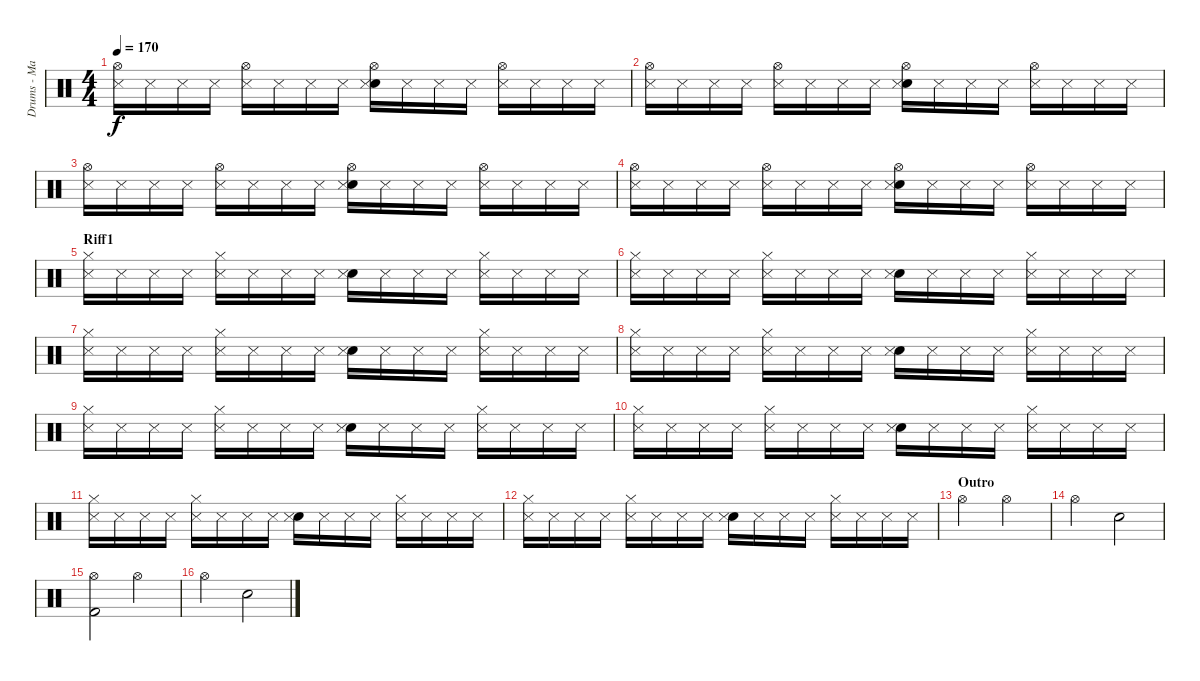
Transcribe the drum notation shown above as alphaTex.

\track ("Drums - Mattias Grahn" "Drums - Ma") {instrument percussion}
\staff {score}
\articulation defaults
\ts (4 4)
\tempo 170
\clef neutral
\ks c
("Hi-Hat (open)" "Snare (side stick) 3").16{dy f} "Snare (side stick) 3".16 "Snare (side stick) 3".16 "Snare (side stick) 3".16 ("Hi-Hat (open)" "Snare (side stick) 3").16 "Snare (side stick) 3".16 "Snare (side stick) 3".16 "Snare (side stick) 3".16 ("Electric Snare (hit)" "Hi-Hat (open)" "Snare (side stick) 3").16 "Snare (side stick) 3".16 "Snare (side stick) 3".16 "Snare (side stick) 3".16 ("Hi-Hat (open)" "Snare (side stick) 3").16 "Snare (side stick) 3".16 "Snare (side stick) 3".16 "Snare (side stick) 3".16 |
("Hi-Hat (open)" "Snare (side stick) 3").16 "Snare (side stick) 3".16 "Snare (side stick) 3".16 "Snare (side stick) 3".16 ("Hi-Hat (open)" "Snare (side stick) 3").16 "Snare (side stick) 3".16 "Snare (side stick) 3".16 "Snare (side stick) 3".16 ("Electric Snare (hit)" "Hi-Hat (open)" "Snare (side stick) 3").16 "Snare (side stick) 3".16 "Snare (side stick) 3".16 "Snare (side stick) 3".16 ("Hi-Hat (open)" "Snare (side stick) 3").16 "Snare (side stick) 3".16 "Snare (side stick) 3".16 "Snare (side stick) 3".16 |
("Hi-Hat (open)" "Snare (side stick) 3").16 "Snare (side stick) 3".16 "Snare (side stick) 3".16 "Snare (side stick) 3".16 ("Hi-Hat (open)" "Snare (side stick) 3").16 "Snare (side stick) 3".16 "Snare (side stick) 3".16 "Snare (side stick) 3".16 ("Electric Snare (hit)" "Hi-Hat (open)" "Snare (side stick) 3").16 "Snare (side stick) 3".16 "Snare (side stick) 3".16 "Snare (side stick) 3".16 ("Hi-Hat (open)" "Snare (side stick) 3").16 "Snare (side stick) 3".16 "Snare (side stick) 3".16 "Snare (side stick) 3".16 |
("Hi-Hat (open)" "Snare (side stick) 3").16 "Snare (side stick) 3".16 "Snare (side stick) 3".16 "Snare (side stick) 3".16 ("Hi-Hat (open)" "Snare (side stick) 3").16 "Snare (side stick) 3".16 "Snare (side stick) 3".16 "Snare (side stick) 3".16 ("Electric Snare (hit)" "Hi-Hat (open)" "Snare (side stick) 3").16 "Snare (side stick) 3".16 "Snare (side stick) 3".16 "Snare (side stick) 3".16 ("Hi-Hat (open)" "Snare (side stick) 3").16 "Snare (side stick) 3".16 "Snare (side stick) 3".16 "Snare (side stick) 3".16 |
\section ("" "Riff1")
("Hi-Hat (closed)" "Snare (side stick) 3").16 "Snare (side stick) 3".16 "Snare (side stick) 3".16 "Snare (side stick) 3".16 ("Hi-Hat (closed)" "Snare (side stick) 3").16 "Snare (side stick) 3".16 "Snare (side stick) 3".16 "Snare (side stick) 3".16 ("Electric Snare (hit)" "Snare (side stick) 3").16 "Snare (side stick) 3".16 "Snare (side stick) 3".16 "Snare (side stick) 3".16 ("Hi-Hat (closed)" "Snare (side stick) 3").16 "Snare (side stick) 3".16 "Snare (side stick) 3".16 "Snare (side stick) 3".16 |
("Hi-Hat (closed)" "Snare (side stick) 3").16 "Snare (side stick) 3".16 "Snare (side stick) 3".16 "Snare (side stick) 3".16 ("Hi-Hat (closed)" "Snare (side stick) 3").16 "Snare (side stick) 3".16 "Snare (side stick) 3".16 "Snare (side stick) 3".16 ("Electric Snare (hit)" "Snare (side stick) 3").16 "Snare (side stick) 3".16 "Snare (side stick) 3".16 "Snare (side stick) 3".16 ("Hi-Hat (closed)" "Snare (side stick) 3").16 "Snare (side stick) 3".16 "Snare (side stick) 3".16 "Snare (side stick) 3".16 |
("Hi-Hat (closed)" "Snare (side stick) 3").16 "Snare (side stick) 3".16 "Snare (side stick) 3".16 "Snare (side stick) 3".16 ("Hi-Hat (closed)" "Snare (side stick) 3").16 "Snare (side stick) 3".16 "Snare (side stick) 3".16 "Snare (side stick) 3".16 ("Electric Snare (hit)" "Snare (side stick) 3").16 "Snare (side stick) 3".16 "Snare (side stick) 3".16 "Snare (side stick) 3".16 ("Hi-Hat (closed)" "Snare (side stick) 3").16 "Snare (side stick) 3".16 "Snare (side stick) 3".16 "Snare (side stick) 3".16 |
("Hi-Hat (closed)" "Snare (side stick) 3").16 "Snare (side stick) 3".16 "Snare (side stick) 3".16 "Snare (side stick) 3".16 ("Hi-Hat (closed)" "Snare (side stick) 3").16 "Snare (side stick) 3".16 "Snare (side stick) 3".16 "Snare (side stick) 3".16 ("Electric Snare (hit)" "Snare (side stick) 3").16 "Snare (side stick) 3".16 "Snare (side stick) 3".16 "Snare (side stick) 3".16 ("Hi-Hat (closed)" "Snare (side stick) 3").16 "Snare (side stick) 3".16 "Snare (side stick) 3".16 "Snare (side stick) 3".16 |
("Hi-Hat (closed)" "Snare (side stick) 3").16 "Snare (side stick) 3".16 "Snare (side stick) 3".16 "Snare (side stick) 3".16 ("Hi-Hat (closed)" "Snare (side stick) 3").16 "Snare (side stick) 3".16 "Snare (side stick) 3".16 "Snare (side stick) 3".16 ("Electric Snare (hit)" "Snare (side stick) 3").16 "Snare (side stick) 3".16 "Snare (side stick) 3".16 "Snare (side stick) 3".16 ("Hi-Hat (closed)" "Snare (side stick) 3").16 "Snare (side stick) 3".16 "Snare (side stick) 3".16 "Snare (side stick) 3".16 |
("Hi-Hat (closed)" "Snare (side stick) 3").16 "Snare (side stick) 3".16 "Snare (side stick) 3".16 "Snare (side stick) 3".16 ("Hi-Hat (closed)" "Snare (side stick) 3").16 "Snare (side stick) 3".16 "Snare (side stick) 3".16 "Snare (side stick) 3".16 ("Electric Snare (hit)" "Snare (side stick) 3").16 "Snare (side stick) 3".16 "Snare (side stick) 3".16 "Snare (side stick) 3".16 ("Hi-Hat (closed)" "Snare (side stick) 3").16 "Snare (side stick) 3".16 "Snare (side stick) 3".16 "Snare (side stick) 3".16 |
("Hi-Hat (closed)" "Snare (side stick) 3").16 "Snare (side stick) 3".16 "Snare (side stick) 3".16 "Snare (side stick) 3".16 ("Hi-Hat (closed)" "Snare (side stick) 3").16 "Snare (side stick) 3".16 "Snare (side stick) 3".16 "Snare (side stick) 3".16 ("Electric Snare (hit)" "Snare (side stick) 3").16 "Snare (side stick) 3".16 "Snare (side stick) 3".16 "Snare (side stick) 3".16 ("Hi-Hat (closed)" "Snare (side stick) 3").16 "Snare (side stick) 3".16 "Snare (side stick) 3".16 "Snare (side stick) 3".16 |
("Hi-Hat (closed)" "Snare (side stick) 3").16 "Snare (side stick) 3".16 "Snare (side stick) 3".16 "Snare (side stick) 3".16 ("Hi-Hat (closed)" "Snare (side stick) 3").16 "Snare (side stick) 3".16 "Snare (side stick) 3".16 "Snare (side stick) 3".16 ("Electric Snare (hit)" "Snare (side stick) 3").16 "Snare (side stick) 3".16 "Snare (side stick) 3".16 "Snare (side stick) 3".16 ("Hi-Hat (closed)" "Snare (side stick) 3").16 "Snare (side stick) 3".16 "Snare (side stick) 3".16 "Snare (side stick) 3".16 |
\section ("" "Outro")
"Hi-Hat (open)".2 "Hi-Hat (open)".2 |
"Hi-Hat (open)".2 "Snare (hit) 2".2 |
("Hi-Hat (open)" "Kick (hit) 2").2 "Hi-Hat (open)".2 |
"Hi-Hat (open)".2 "Snare (hit) 2".2
